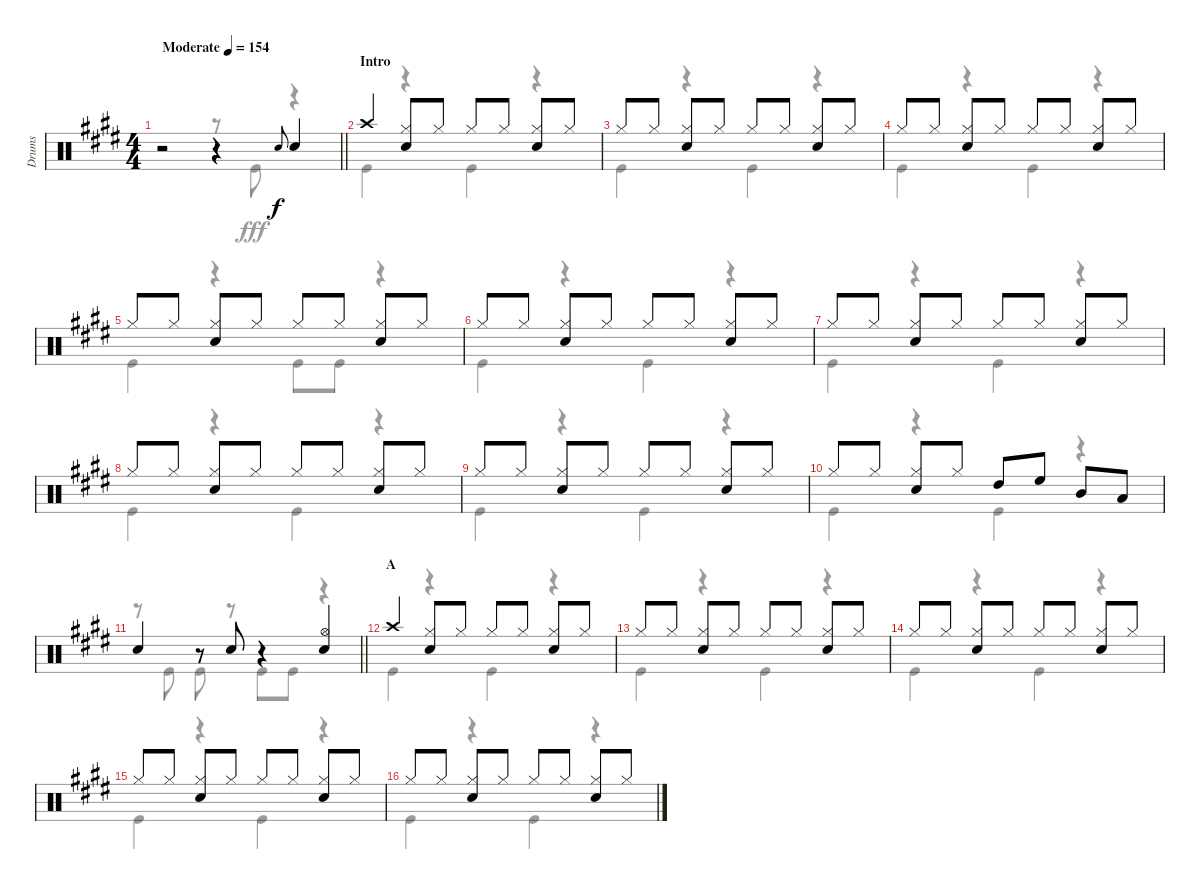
\track ("Drums" "Drums") {instrument percussion}
\staff {score}
\articulation defaults
\voice
\ts (4 4)
\tempo (154 "Moderate")
\clef neutral
\barLineRight lightlight
\ks e
r.2{dy f} r.4 "Snare (hit) 2".8{gr onbeat} "Snare (hit) 2".4 |
\section ("" "Intro")
"Crash high (hit)".4 ("Hi-Hat (closed)" "Snare (hit) 2").8 "Hi-Hat (closed)".8 "Hi-Hat (closed)".8 "Hi-Hat (closed)".8 ("Hi-Hat (closed)" "Snare (hit) 2").8 "Hi-Hat (closed)".8 |
"Hi-Hat (closed)".8 "Hi-Hat (closed)".8 ("Hi-Hat (closed)" "Snare (hit) 2").8 "Hi-Hat (closed)".8 "Hi-Hat (closed)".8 "Hi-Hat (closed)".8 ("Hi-Hat (closed)" "Snare (hit) 2").8 "Hi-Hat (closed)".8 |
"Hi-Hat (closed)".8 "Hi-Hat (closed)".8 ("Hi-Hat (closed)" "Snare (hit) 2").8 "Hi-Hat (closed)".8 "Hi-Hat (closed)".8 "Hi-Hat (closed)".8 ("Hi-Hat (closed)" "Snare (hit) 2").8 "Hi-Hat (closed)".8 |
"Hi-Hat (closed)".8 "Hi-Hat (closed)".8 ("Hi-Hat (closed)" "Snare (hit) 2").8 "Hi-Hat (closed)".8 "Hi-Hat (closed)".8 "Hi-Hat (closed)".8 ("Hi-Hat (closed)" "Snare (hit) 2").8 "Hi-Hat (closed)".8 |
"Hi-Hat (closed)".8 "Hi-Hat (closed)".8 ("Hi-Hat (closed)" "Snare (hit) 2").8 "Hi-Hat (closed)".8 "Hi-Hat (closed)".8 "Hi-Hat (closed)".8 ("Hi-Hat (closed)" "Snare (hit) 2").8 "Hi-Hat (closed)".8 |
"Hi-Hat (closed)".8 "Hi-Hat (closed)".8 ("Hi-Hat (closed)" "Snare (hit) 2").8 "Hi-Hat (closed)".8 "Hi-Hat (closed)".8 "Hi-Hat (closed)".8 ("Hi-Hat (closed)" "Snare (hit) 2").8 "Hi-Hat (closed)".8 |
"Hi-Hat (closed)".8 "Hi-Hat (closed)".8 ("Hi-Hat (closed)" "Snare (hit) 2").8 "Hi-Hat (closed)".8 "Hi-Hat (closed)".8 "Hi-Hat (closed)".8 ("Hi-Hat (closed)" "Snare (hit) 2").8 "Hi-Hat (closed)".8 |
"Hi-Hat (closed)".8 "Hi-Hat (closed)".8 ("Hi-Hat (closed)" "Snare (hit) 2").8 "Hi-Hat (closed)".8 "Hi-Hat (closed)".8 "Hi-Hat (closed)".8 ("Hi-Hat (closed)" "Snare (hit) 2").8 "Hi-Hat (closed)".8 |
"Hi-Hat (closed)".8 "Hi-Hat (closed)".8 ("Hi-Hat (closed)" "Snare (hit) 2").8 "Hi-Hat (closed)".8 "High Tom (hit)".8 "High Floor Tom (hit)".8 "Mid Tom (hit)".8 "Low Tom (hit)".8 |
\barLineRight lightlight "Snare (hit) 2".4
r.8 "Snare (hit) 2".8 r.4 ("Hi-Hat (open)" "Snare (hit) 2").4 |
\section ("" "A")
"Crash high (hit)".4 ("Hi-Hat (closed)" "Snare (hit) 2").8 "Hi-Hat (closed)".8 "Hi-Hat (closed)".8 "Hi-Hat (closed)".8 ("Hi-Hat (closed)" "Snare (hit) 2").8 "Hi-Hat (closed)".8 |
"Hi-Hat (closed)".8 "Hi-Hat (closed)".8 ("Hi-Hat (closed)" "Snare (hit) 2").8 "Hi-Hat (closed)".8 "Hi-Hat (closed)".8 "Hi-Hat (closed)".8 ("Hi-Hat (closed)" "Snare (hit) 2").8 "Hi-Hat (closed)".8 |
"Hi-Hat (closed)".8 "Hi-Hat (closed)".8 ("Hi-Hat (closed)" "Snare (hit) 2").8 "Hi-Hat (closed)".8 "Hi-Hat (closed)".8 "Hi-Hat (closed)".8 ("Hi-Hat (closed)" "Snare (hit) 2").8 "Hi-Hat (closed)".8 |
"Hi-Hat (closed)".8 "Hi-Hat (closed)".8 ("Hi-Hat (closed)" "Snare (hit) 2").8 "Hi-Hat (closed)".8 "Hi-Hat (closed)".8 "Hi-Hat (closed)".8 ("Hi-Hat (closed)" "Snare (hit) 2").8 "Hi-Hat (closed)".8 |
"Hi-Hat (closed)".8 "Hi-Hat (closed)".8 ("Hi-Hat (closed)" "Snare (hit) 2").8 "Hi-Hat (closed)".8 "Hi-Hat (closed)".8 "Hi-Hat (closed)".8 ("Hi-Hat (closed)" "Snare (hit) 2").8 "Hi-Hat (closed)".8
\voice
\clef neutral
\ottava regular
\simile none
\barLineRight lightlight
\ks e
r.2{dy fff} r.8 "Kick (hit)".8 r.4 |
"Kick (hit)".4 r.4 "Kick (hit)".4 r.4 |
"Kick (hit)".4 r.4 "Kick (hit)".4 r.4 |
"Kick (hit)".4 r.4 "Kick (hit)".4 r.4 |
"Kick (hit)".4 r.4 "Kick (hit)".8 "Kick (hit)".8 r.4 |
"Kick (hit)".4 r.4 "Kick (hit)".4 r.4 |
"Kick (hit)".4 r.4 "Kick (hit)".4 r.4 |
"Kick (hit)".4 r.4 "Kick (hit)".4 r.4 |
"Kick (hit)".4 r.4 "Kick (hit)".4 r.4 |
"Kick (hit)".4 r.4 "Kick (hit)".4 r.4 |
\barLineRight lightlight
r.8 "Kick (hit)".8 "Kick (hit)".8 r.8 "Kick (hit)".8 "Kick (hit)".8 r.4 |
"Kick (hit)".4 r.4 "Kick (hit)".4 r.4 |
"Kick (hit)".4 r.4 "Kick (hit)".4 r.4 |
"Kick (hit)".4 r.4 "Kick (hit)".4 r.4 |
"Kick (hit)".4 r.4 "Kick (hit)".4 r.4 |
"Kick (hit)".4 r.4 "Kick (hit)".4 r.4
